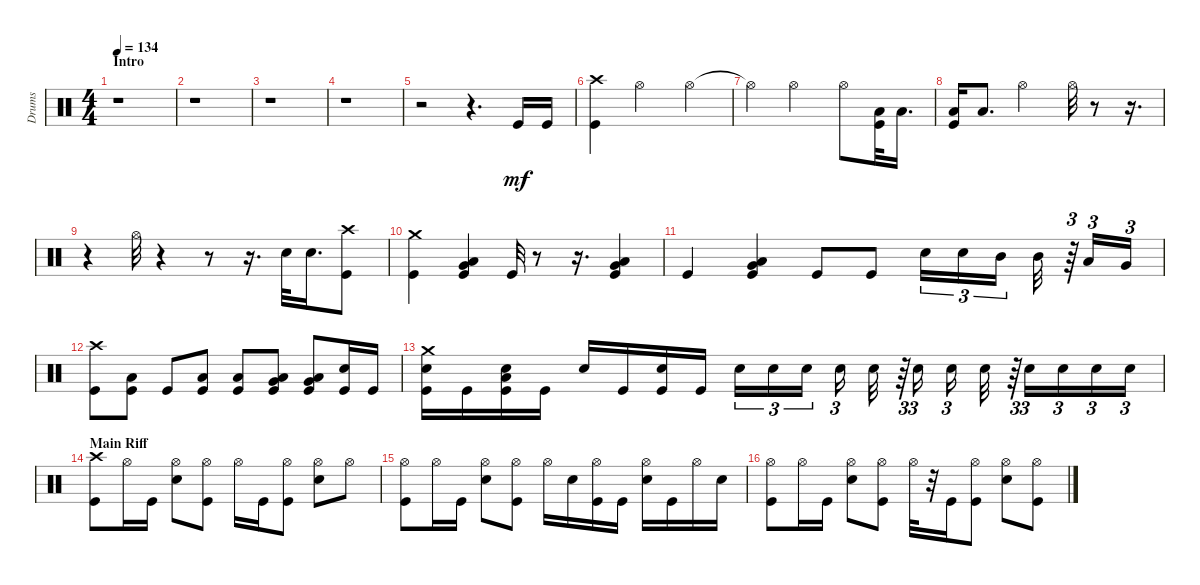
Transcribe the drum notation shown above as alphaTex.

\track ("Drums" "Drums") {instrument percussion}
\staff {score}
\articulation defaults
\ts (4 4)
\section ("" "Intro")
\tempo 134
\clef neutral
\ks aminor
r.1{dy mf} |
r.1 |
r.1 |
r.1 |
r.2 r.4{d} "Kick (hit)".16 "Kick (hit)".16 |
("Kick (hit)" "Crash high (hit)").4 "Hi-Hat (open)".2 "Hi-Hat (open)".4 |
"Hi-Hat (open)"{t}.4 "Hi-Hat (open)".2 "Hi-Hat (open)".8 ("Kick (hit)" "Low Floor Tom (hit)").32 "Low Floor Tom (hit)".16{d} |
("Kick (hit)" "Low Floor Tom (hit)").16 "Low Floor Tom (hit)".8{d} "Hi-Hat (open)".2 "Hi-Hat (open)".32 r.8 r.16{d} |
r.4 "Hi-Hat (open)".32 r.4 r.8 r.16{d} "Snare (hit) 2".32 "Snare (hit) 2".16{d} ("Kick (hit)" "Crash high (hit)").8 |
("Kick (hit)" "Crash medium (hit)").4 ("Low Floor Tom (hit)" "Kick (hit)" "Very Low Tom (hit)").4 "Kick (hit)".32 r.8 r.16{d} ("Low Floor Tom (hit)" "Kick (hit)" "Very Low Tom (hit)").4 |
"Kick (hit)".4 ("Kick (hit)" "Low Floor Tom (hit)" "Very Low Tom (hit)").4 "Kick (hit)".8 "Kick (hit)".8 "Snare (hit) 2".16{tu (3 2)} "Snare (hit) 2".16{tu (3 2)} "Mid Tom (hit)".16{tu (3 2)} "Mid Tom (hit)".32 r.64{tu (3 2)} "Low Tom (hit)".16{tu (3 2)} "Very Low Tom (hit)".16{tu (3 2)} |
("Kick (hit)" "Crash high (hit)").8 ("Kick (hit)" "Low Floor Tom (hit)").8 "Kick (hit)".8 ("Low Floor Tom (hit)" "Kick (hit)").8 ("Kick (hit)" "Low Floor Tom (hit)").8 ("Kick (hit)" "Very Low Tom (hit)" "Low Floor Tom (hit)").8 ("Kick (hit)" "Low Floor Tom (hit)" "Very Low Tom (hit)").8 ("Snare (hit) 2" "Kick (hit)").16 "Kick (hit)".16 |
("Crash medium (hit)" "Snare (hit) 2" "Kick (hit)").16 "Kick (hit)".16 ("Kick (hit)" "Snare (hit) 2" "Low Floor Tom (hit)").16 "Kick (hit)".16 "Snare (hit) 2".16 "Kick (hit)".16 ("Snare (hit) 2" "Kick (hit)").16 "Kick (hit)".16 "Snare (hit) 2".16{tu (3 2)} "Snare (hit) 2".16{tu (3 2)} "Snare (hit) 2".16{tu (3 2)} "Snare (hit) 2".16{tu (3 2)} "Snare (hit) 2".32 r.64{tu (3 2)} "Snare (hit) 2".16{tu (3 2)} "Snare (hit) 2".16{tu (3 2)} "Snare (hit) 2".32 r.64{tu (3 2)} "Snare (hit) 2".16{tu (3 2)} "Snare (hit) 2".16{tu (3 2)} "Snare (hit) 2".16{tu (3 2)} "Snare (hit) 2".16{tu (3 2)} |
\section ("" "Main Riff")
("Kick (hit)" "Crash high (hit)").8 "Hi-Hat (open)".16 "Kick (hit)".16 ("Snare (hit) 2" "Hi-Hat (open)").8 ("Kick (hit)" "Hi-Hat (open)").8 "Hi-Hat (open)".16 "Kick (hit)".16 ("Kick (hit)" "Hi-Hat (open)").8 ("Snare (hit) 2" "Hi-Hat (open)").8 "Hi-Hat (open)".8 |
("Kick (hit)" "Hi-Hat (open)").8 "Hi-Hat (open)".16 "Kick (hit)".16 ("Snare (hit) 2" "Hi-Hat (open)").8 ("Kick (hit)" "Hi-Hat (open)").8 "Hi-Hat (open)".16 "Snare (hit) 2".16 ("Hi-Hat (open)" "Kick (hit)").16 "Kick (hit)".16 ("Snare (hit) 2" "Hi-Hat (open)").16 "Kick (hit)".16 "Hi-Hat (open)".16 "Snare (hit) 2".16 |
("Kick (hit)" "Hi-Hat (open)").8 "Hi-Hat (open)".16 "Kick (hit)".16 ("Snare (hit) 2" "Hi-Hat (open)").8 ("Hi-Hat (open)" "Kick (hit)").8 "Hi-Hat (open)".32 r.32 "Kick (hit)".16 ("Hi-Hat (open)" "Kick (hit)").8 ("Snare (hit) 2" "Hi-Hat (open)").8 ("Hi-Hat (open)" "Kick (hit)").8
